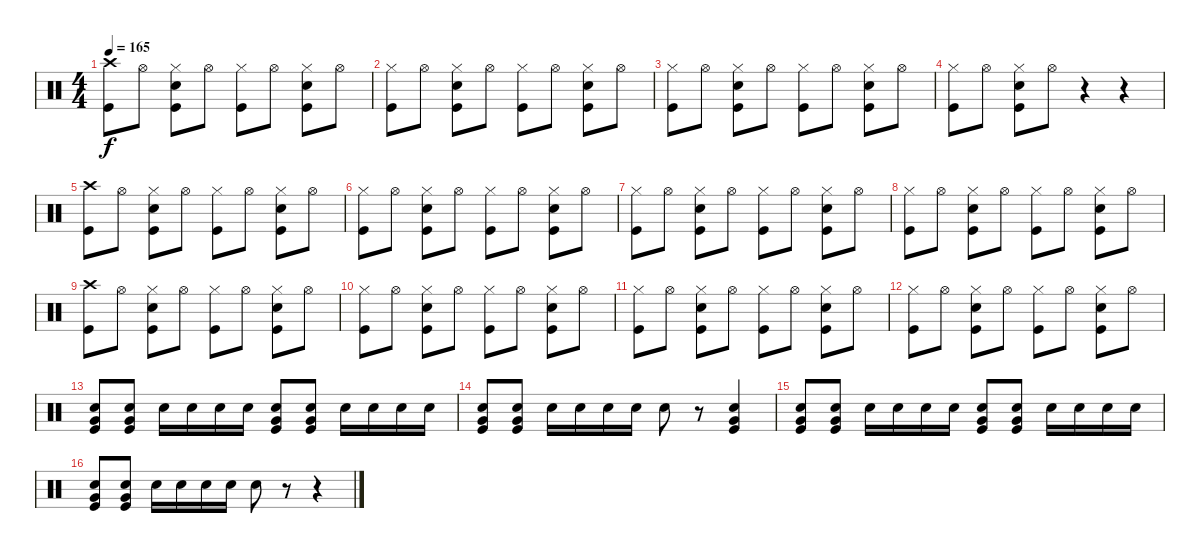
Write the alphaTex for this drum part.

\track "" {instrument percussion}
\staff {score}
\articulation defaults
\ts (4 4)
\tempo 165
\clef neutral
\ks c
("Crash high (hit)" "Kick (hit)").8{dy f} "Hi-Hat (open)".8 ("Hi-Hat (closed)" "Electric Snare (hit)" "Kick (hit)").8 "Hi-Hat (open)".8 ("Hi-Hat (closed)" "Kick (hit)").8 "Hi-Hat (open)".8 ("Hi-Hat (closed)" "Electric Snare (hit)" "Kick (hit)").8 "Hi-Hat (open)".8 |
("Hi-Hat (closed)" "Kick (hit)").8 "Hi-Hat (open)".8 ("Hi-Hat (closed)" "Electric Snare (hit)" "Kick (hit)").8 "Hi-Hat (open)".8 ("Hi-Hat (closed)" "Kick (hit)").8 "Hi-Hat (open)".8 ("Hi-Hat (closed)" "Electric Snare (hit)" "Kick (hit)").8 "Hi-Hat (open)".8 |
("Hi-Hat (closed)" "Kick (hit)").8 "Hi-Hat (open)".8 ("Hi-Hat (closed)" "Electric Snare (hit)" "Kick (hit)").8 "Hi-Hat (open)".8 ("Hi-Hat (closed)" "Kick (hit)").8 "Hi-Hat (open)".8 ("Hi-Hat (closed)" "Electric Snare (hit)" "Kick (hit)").8 "Hi-Hat (open)".8 |
("Hi-Hat (closed)" "Kick (hit)").8 "Hi-Hat (open)".8 ("Hi-Hat (closed)" "Electric Snare (hit)" "Kick (hit)").8 "Hi-Hat (open)".8 r.4 r.4 |
("Crash high (hit)" "Kick (hit)").8 "Hi-Hat (open)".8 ("Hi-Hat (closed)" "Electric Snare (hit)" "Kick (hit)").8 "Hi-Hat (open)".8 ("Hi-Hat (closed)" "Kick (hit)").8 "Hi-Hat (open)".8 ("Hi-Hat (closed)" "Electric Snare (hit)" "Kick (hit)").8 "Hi-Hat (open)".8 |
("Hi-Hat (closed)" "Kick (hit)").8 "Hi-Hat (open)".8 ("Hi-Hat (closed)" "Electric Snare (hit)" "Kick (hit)").8 "Hi-Hat (open)".8 ("Hi-Hat (closed)" "Kick (hit)").8 "Hi-Hat (open)".8 ("Hi-Hat (closed)" "Electric Snare (hit)" "Kick (hit)").8 "Hi-Hat (open)".8 |
("Hi-Hat (closed)" "Kick (hit)").8 "Hi-Hat (open)".8 ("Hi-Hat (closed)" "Electric Snare (hit)" "Kick (hit)").8 "Hi-Hat (open)".8 ("Hi-Hat (closed)" "Kick (hit)").8 "Hi-Hat (open)".8 ("Hi-Hat (closed)" "Electric Snare (hit)" "Kick (hit)").8 "Hi-Hat (open)".8 |
("Hi-Hat (closed)" "Kick (hit)").8 "Hi-Hat (open)".8 ("Hi-Hat (closed)" "Electric Snare (hit)" "Kick (hit)").8 "Hi-Hat (open)".8 ("Hi-Hat (closed)" "Kick (hit)").8 "Hi-Hat (open)".8 ("Hi-Hat (closed)" "Electric Snare (hit)" "Kick (hit)").8 "Hi-Hat (open)".8 |
("Crash high (hit)" "Kick (hit)").8 "Hi-Hat (open)".8 ("Hi-Hat (closed)" "Electric Snare (hit)" "Kick (hit)").8 "Hi-Hat (open)".8 ("Hi-Hat (closed)" "Kick (hit)").8 "Hi-Hat (open)".8 ("Hi-Hat (closed)" "Electric Snare (hit)" "Kick (hit)").8 "Hi-Hat (open)".8 |
("Hi-Hat (closed)" "Kick (hit)").8 "Hi-Hat (open)".8 ("Hi-Hat (closed)" "Electric Snare (hit)" "Kick (hit)").8 "Hi-Hat (open)".8 ("Hi-Hat (closed)" "Kick (hit)").8 "Hi-Hat (open)".8 ("Hi-Hat (closed)" "Electric Snare (hit)" "Kick (hit)").8 "Hi-Hat (open)".8 |
("Hi-Hat (closed)" "Kick (hit)").8 "Hi-Hat (open)".8 ("Hi-Hat (closed)" "Electric Snare (hit)" "Kick (hit)").8 "Hi-Hat (open)".8 ("Hi-Hat (closed)" "Kick (hit)").8 "Hi-Hat (open)".8 ("Hi-Hat (closed)" "Electric Snare (hit)" "Kick (hit)").8 "Hi-Hat (open)".8 |
("Hi-Hat (closed)" "Kick (hit)").8 "Hi-Hat (open)".8 ("Hi-Hat (closed)" "Electric Snare (hit)" "Kick (hit)").8 "Hi-Hat (open)".8 ("Hi-Hat (closed)" "Kick (hit)").8 "Hi-Hat (open)".8 ("Hi-Hat (closed)" "Electric Snare (hit)" "Kick (hit)").8 "Hi-Hat (open)".8 |
("Electric Snare (hit)" "Very Low Tom (hit)" "Kick (hit)").8 ("Electric Snare (hit)" "Very Low Tom (hit)" "Kick (hit)").8 "Electric Snare (hit)".16 "Electric Snare (hit)".16 "Electric Snare (hit)".16 "Electric Snare (hit)".16 ("Electric Snare (hit)" "Very Low Tom (hit)" "Kick (hit)").8 ("Electric Snare (hit)" "Very Low Tom (hit)" "Kick (hit)").8 "Electric Snare (hit)".16 "Electric Snare (hit)".16 "Electric Snare (hit)".16 "Electric Snare (hit)".16 |
("Electric Snare (hit)" "Very Low Tom (hit)" "Kick (hit)").8 ("Electric Snare (hit)" "Very Low Tom (hit)" "Kick (hit)").8 "Electric Snare (hit)".16 "Electric Snare (hit)".16 "Electric Snare (hit)".16 "Electric Snare (hit)".16 "Electric Snare (hit)".8 r.8 ("Electric Snare (hit)" "Very Low Tom (hit)" "Kick (hit)").4 |
("Electric Snare (hit)" "Very Low Tom (hit)" "Kick (hit)").8 ("Electric Snare (hit)" "Very Low Tom (hit)" "Kick (hit)").8 "Electric Snare (hit)".16 "Electric Snare (hit)".16 "Electric Snare (hit)".16 "Electric Snare (hit)".16 ("Electric Snare (hit)" "Very Low Tom (hit)" "Kick (hit)").8 ("Electric Snare (hit)" "Very Low Tom (hit)" "Kick (hit)").8 "Electric Snare (hit)".16 "Electric Snare (hit)".16 "Electric Snare (hit)".16 "Electric Snare (hit)".16 |
("Electric Snare (hit)" "Very Low Tom (hit)" "Kick (hit)").8 ("Electric Snare (hit)" "Very Low Tom (hit)" "Kick (hit)").8 "Electric Snare (hit)".16 "Electric Snare (hit)".16 "Electric Snare (hit)".16 "Electric Snare (hit)".16 "Electric Snare (hit)".8 r.8 r.4
